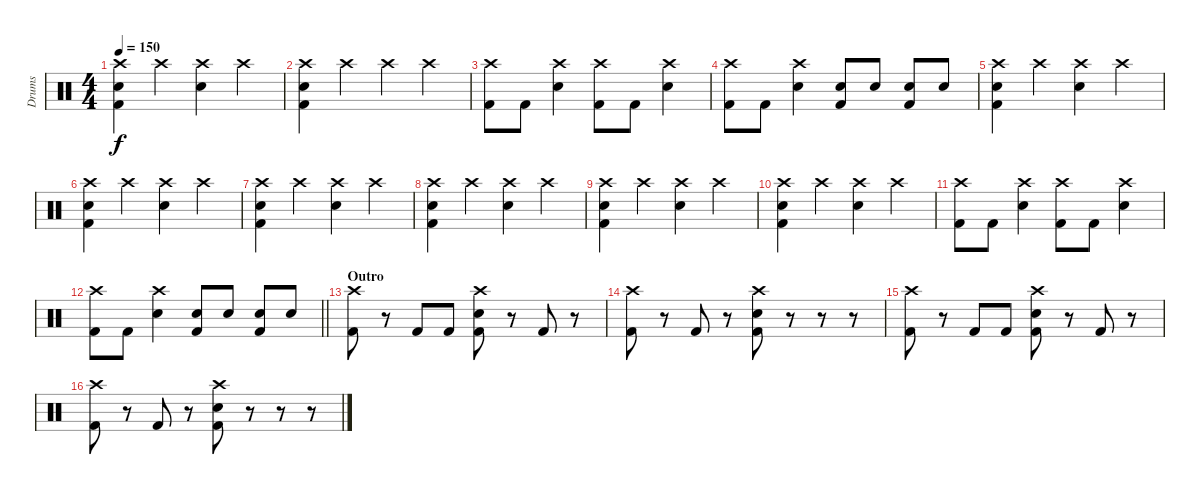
\track ("Drums" "Drums") {instrument percussion}
\staff {score}
\articulation defaults
\ts (4 4)
\tempo 150
\clef neutral
\ks c
("Crash high (hit)" "Electric Snare (hit)" "Kick (hit) 2").4{dy f} "Crash high (hit)".4 ("Crash high (hit)" "Electric Snare (hit)").4 "Crash high (hit)".4 |
("Crash high (hit)" "Electric Snare (hit)" "Kick (hit) 2").4 "Crash high (hit)".4 "Crash high (hit)".4 "Crash high (hit)".4 |
("Crash high (hit)" "Kick (hit) 2").8 "Kick (hit) 2".8 ("Crash high (hit)" "Electric Snare (hit)").4 ("Crash high (hit)" "Kick (hit) 2").8 "Kick (hit) 2".8 ("Crash high (hit)" "Electric Snare (hit)").4 |
("Crash high (hit)" "Kick (hit) 2").8 "Kick (hit) 2".8 ("Crash high (hit)" "Electric Snare (hit)").4 ("Electric Snare (hit)" "Kick (hit) 2").8 "Electric Snare (hit)".8 ("Electric Snare (hit)" "Kick (hit) 2").8 "Electric Snare (hit)".8 |
("Crash high (hit)" "Electric Snare (hit)" "Kick (hit) 2").4 "Crash high (hit)".4 ("Crash high (hit)" "Electric Snare (hit)").4 "Crash high (hit)".4 |
("Crash high (hit)" "Electric Snare (hit)" "Kick (hit) 2").4 "Crash high (hit)".4 ("Crash high (hit)" "Electric Snare (hit)").4 "Crash high (hit)".4 |
("Crash high (hit)" "Electric Snare (hit)" "Kick (hit) 2").4 "Crash high (hit)".4 ("Crash high (hit)" "Electric Snare (hit)").4 "Crash high (hit)".4 |
("Crash high (hit)" "Electric Snare (hit)" "Kick (hit) 2").4 "Crash high (hit)".4 ("Crash high (hit)" "Electric Snare (hit)").4 "Crash high (hit)".4 |
("Crash high (hit)" "Electric Snare (hit)" "Kick (hit) 2").4 "Crash high (hit)".4 ("Crash high (hit)" "Electric Snare (hit)").4 "Crash high (hit)".4 |
("Crash high (hit)" "Electric Snare (hit)" "Kick (hit) 2").4 "Crash high (hit)".4 ("Crash high (hit)" "Electric Snare (hit)").4 "Crash high (hit)".4 |
("Crash high (hit)" "Kick (hit) 2").8 "Kick (hit) 2".8 ("Crash high (hit)" "Electric Snare (hit)").4 ("Crash high (hit)" "Kick (hit) 2").8 "Kick (hit) 2".8 ("Crash high (hit)" "Electric Snare (hit)").4 |
\barLineRight lightlight
("Crash high (hit)" "Kick (hit) 2").8 "Kick (hit) 2".8 ("Crash high (hit)" "Electric Snare (hit)").4 ("Electric Snare (hit)" "Kick (hit) 2").8 "Electric Snare (hit)".8 ("Electric Snare (hit)" "Kick (hit) 2").8 "Electric Snare (hit)".8 |
\section ("" "Outro")
("Crash high (hit)" "Kick (hit) 2").8 r.8 "Kick (hit) 2".8 "Kick (hit) 2".8 ("Crash high (hit)" "Electric Snare (hit)" "Kick (hit) 2").8 r.8 "Kick (hit) 2".8 r.8 |
("Crash high (hit)" "Kick (hit) 2").8 r.8 "Kick (hit) 2".8 r.8 ("Crash high (hit)" "Electric Snare (hit)" "Kick (hit) 2").8 r.8 r.8 r.8 |
("Crash high (hit)" "Kick (hit) 2").8 r.8 "Kick (hit) 2".8 "Kick (hit) 2".8 ("Crash high (hit)" "Electric Snare (hit)" "Kick (hit) 2").8 r.8 "Kick (hit) 2".8 r.8 |
("Crash high (hit)" "Kick (hit) 2").8 r.8 "Kick (hit) 2".8 r.8 ("Crash high (hit)" "Electric Snare (hit)" "Kick (hit) 2").8 r.8 r.8 r.8
